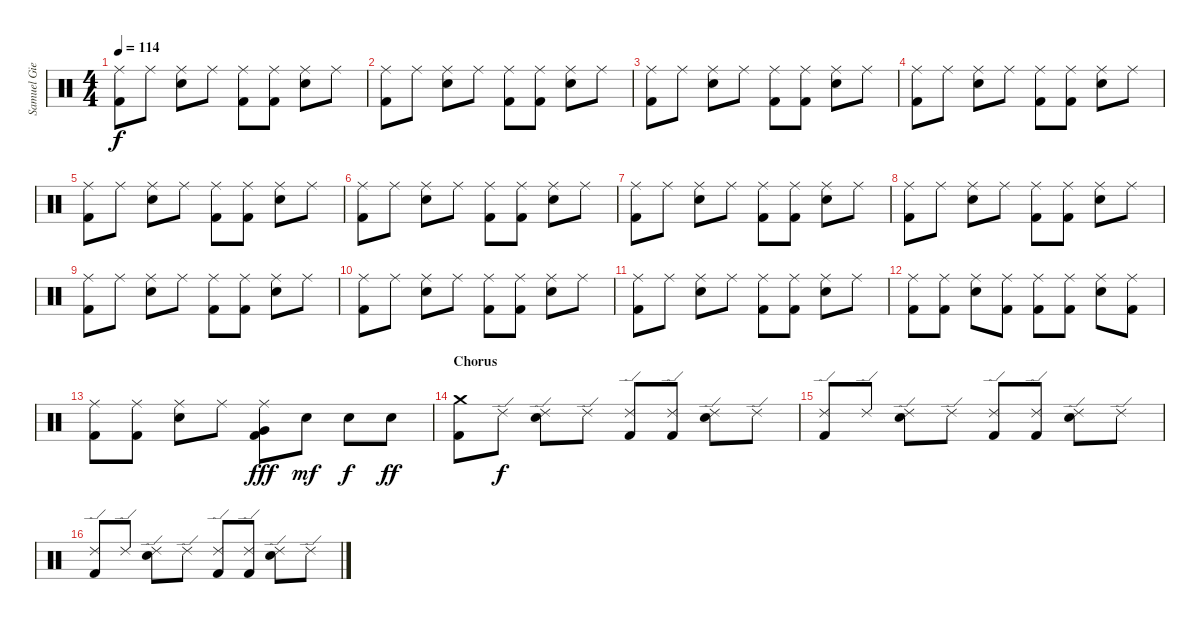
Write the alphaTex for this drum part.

\track ("Samuel Giers - Drum" "Samuel Gie") {instrument percussion}
\staff {score}
\articulation defaults
\ts (4 4)
\tempo 114
\clef neutral
\ks c
("Ride (middle)" "Kick (hit) 2").8{dy f} "Ride (middle)".8 ("Ride (middle)" "Snare (hit) 2").8 "Ride (middle)".8 ("Ride (middle)" "Kick (hit) 2").8 ("Ride (middle)" "Kick (hit) 2").8 ("Ride (middle)" "Snare (hit) 2").8 "Ride (middle)".8 |
("Ride (middle)" "Kick (hit) 2").8 "Ride (middle)".8 ("Ride (middle)" "Snare (hit) 2").8 "Ride (middle)".8 ("Ride (middle)" "Kick (hit) 2").8 ("Ride (middle)" "Kick (hit) 2").8 ("Ride (middle)" "Snare (hit) 2").8 "Ride (middle)".8 |
("Ride (middle)" "Kick (hit) 2").8 "Ride (middle)".8 ("Ride (middle)" "Snare (hit) 2").8 "Ride (middle)".8 ("Ride (middle)" "Kick (hit) 2").8 ("Ride (middle)" "Kick (hit) 2").8 ("Ride (middle)" "Snare (hit) 2").8 "Ride (middle)".8 |
("Ride (middle)" "Kick (hit) 2").8 "Ride (middle)".8 ("Ride (middle)" "Snare (hit) 2").8 "Ride (middle)".8 ("Ride (middle)" "Kick (hit) 2").8 ("Ride (middle)" "Kick (hit) 2").8 ("Ride (middle)" "Snare (hit) 2").8 "Ride (middle)".8 |
("Ride (middle)" "Kick (hit) 2").8 "Ride (middle)".8 ("Ride (middle)" "Snare (hit) 2").8 "Ride (middle)".8 ("Ride (middle)" "Kick (hit) 2").8 ("Ride (middle)" "Kick (hit) 2").8 ("Ride (middle)" "Snare (hit) 2").8 "Ride (middle)".8 |
("Ride (middle)" "Kick (hit) 2").8 "Ride (middle)".8 ("Ride (middle)" "Snare (hit) 2").8 "Ride (middle)".8 ("Ride (middle)" "Kick (hit) 2").8 ("Ride (middle)" "Kick (hit) 2").8 ("Ride (middle)" "Snare (hit) 2").8 "Ride (middle)".8 |
("Ride (middle)" "Kick (hit) 2").8 "Ride (middle)".8 ("Ride (middle)" "Snare (hit) 2").8 "Ride (middle)".8 ("Ride (middle)" "Kick (hit) 2").8 ("Ride (middle)" "Kick (hit) 2").8 ("Ride (middle)" "Snare (hit) 2").8 "Ride (middle)".8 |
("Ride (middle)" "Kick (hit) 2").8 "Ride (middle)".8 ("Ride (middle)" "Snare (hit) 2").8 "Ride (middle)".8 ("Ride (middle)" "Kick (hit) 2").8 ("Ride (middle)" "Kick (hit) 2").8 ("Ride (middle)" "Snare (hit) 2").8 "Ride (middle)".8 |
("Ride (middle)" "Kick (hit) 2").8 "Ride (middle)".8 ("Ride (middle)" "Snare (hit) 2").8 "Ride (middle)".8 ("Ride (middle)" "Kick (hit) 2").8 ("Ride (middle)" "Kick (hit) 2").8 ("Ride (middle)" "Snare (hit) 2").8 "Ride (middle)".8 |
("Ride (middle)" "Kick (hit) 2").8 "Ride (middle)".8 ("Ride (middle)" "Snare (hit) 2").8 "Ride (middle)".8 ("Ride (middle)" "Kick (hit) 2").8 ("Ride (middle)" "Kick (hit) 2").8 ("Ride (middle)" "Snare (hit) 2").8 "Ride (middle)".8 |
("Ride (middle)" "Kick (hit) 2").8 "Ride (middle)".8 ("Ride (middle)" "Snare (hit) 2").8 "Ride (middle)".8 ("Ride (middle)" "Kick (hit) 2").8 ("Ride (middle)" "Kick (hit) 2").8 ("Ride (middle)" "Snare (hit) 2").8 "Ride (middle)".8 |
("Ride (middle)" "Kick (hit) 2").8 ("Ride (middle)" "Kick (hit) 2").8 ("Ride (middle)" "Snare (hit) 2").8 ("Ride (middle)" "Kick (hit) 2").8 ("Ride (middle)" "Kick (hit) 2").8 ("Ride (middle)" "Kick (hit) 2").8 ("Ride (middle)" "Snare (hit) 2").8 ("Ride (middle)" "Kick (hit) 2").8 |
("Ride (middle)" "Kick (hit) 2").8 ("Ride (middle)" "Kick (hit) 2").8 ("Ride (middle)" "Snare (hit) 2").8 "Ride (middle)".8 ("Ride (middle)" "Very Low Tom (hit)" "Kick (hit) 2").8{dy fff} "Snare (hit) 2".8{dy mf} "Snare (hit) 2".8{dy f} "Snare (hit) 2".8{dy ff} |
\section ("" "Chorus")
("Crash medium (hit)" "Kick (hit) 2").8 "Ride (edge) 2".8{dy f} ("Ride (edge) 2" "Snare (hit) 2").8 "Ride (edge) 2".8 ("Ride (edge) 2" "Kick (hit) 2").8 ("Ride (edge) 2" "Kick (hit) 2").8 ("Ride (edge) 2" "Snare (hit) 2").8 "Ride (edge) 2".8 |
("Ride (edge) 2" "Kick (hit) 2").8 "Ride (edge) 2".8 ("Ride (edge) 2" "Snare (hit) 2").8 "Ride (edge) 2".8 ("Ride (edge) 2" "Kick (hit) 2").8 ("Ride (edge) 2" "Kick (hit) 2").8 ("Ride (edge) 2" "Snare (hit) 2").8 "Ride (edge) 2".8 |
("Ride (edge) 2" "Kick (hit) 2").8 "Ride (edge) 2".8 ("Ride (edge) 2" "Snare (hit) 2").8 "Ride (edge) 2".8 ("Ride (edge) 2" "Kick (hit) 2").8 ("Ride (edge) 2" "Kick (hit) 2").8 ("Ride (edge) 2" "Snare (hit) 2").8 "Ride (edge) 2".8
